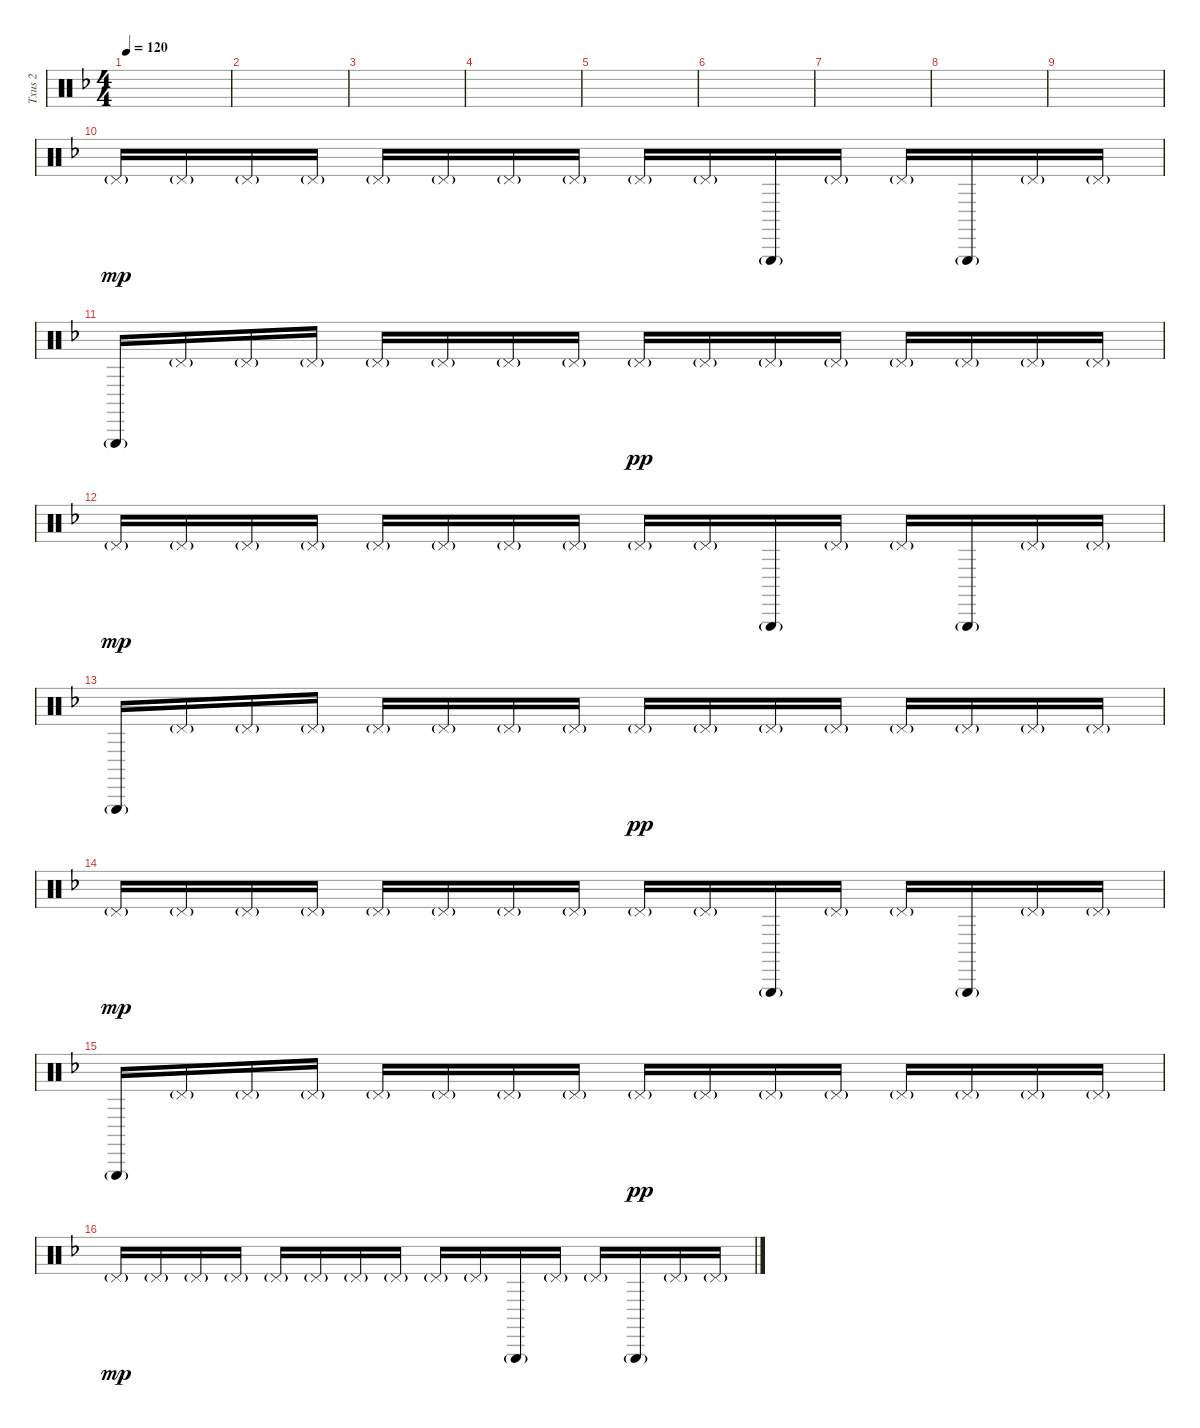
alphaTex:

\track ("Txus 2" "Txus 2") {instrument percussion}
\staff {score}
\articulation defaults
\ts (4 4)
\tempo 120
\clef neutral
\ks dminor
|
|
|
|
|
|
|
|
|
"Pedal Hi-Hat (hit)"{g}.16{dy mp} "Pedal Hi-Hat (hit)"{g}.16 "Pedal Hi-Hat (hit)"{g}.16 "Pedal Hi-Hat (hit)"{g}.16 "Pedal Hi-Hat (hit)"{g}.16 "Pedal Hi-Hat (hit)"{g}.16 "Pedal Hi-Hat (hit)"{g}.16 "Pedal Hi-Hat (hit)"{g}.16 "Pedal Hi-Hat (hit)"{g}.16 "Pedal Hi-Hat (hit)"{g}.16 "Triangle (hit)"{g}.16 "Pedal Hi-Hat (hit)"{g}.16 "Pedal Hi-Hat (hit)"{g}.16 "Triangle (hit)"{g}.16 "Pedal Hi-Hat (hit)"{g}.16 "Pedal Hi-Hat (hit)"{g}.16 |
"Triangle (hit)"{g}.16 "Pedal Hi-Hat (hit)"{g}.16 "Pedal Hi-Hat (hit)"{g}.16 "Pedal Hi-Hat (hit)"{g}.16 "Pedal Hi-Hat (hit)"{g}.16 "Pedal Hi-Hat (hit)"{g}.16 "Pedal Hi-Hat (hit)"{g}.16 "Pedal Hi-Hat (hit)"{g}.16 "Pedal Hi-Hat (hit)"{g}.16{dy pp} "Pedal Hi-Hat (hit)"{g}.16 "Pedal Hi-Hat (hit)"{g}.16 "Pedal Hi-Hat (hit)"{g}.16 "Pedal Hi-Hat (hit)"{g}.16 "Pedal Hi-Hat (hit)"{g}.16 "Pedal Hi-Hat (hit)"{g}.16 "Pedal Hi-Hat (hit)"{g}.16 |
"Pedal Hi-Hat (hit)"{g}.16{dy mp} "Pedal Hi-Hat (hit)"{g}.16 "Pedal Hi-Hat (hit)"{g}.16 "Pedal Hi-Hat (hit)"{g}.16 "Pedal Hi-Hat (hit)"{g}.16 "Pedal Hi-Hat (hit)"{g}.16 "Pedal Hi-Hat (hit)"{g}.16 "Pedal Hi-Hat (hit)"{g}.16 "Pedal Hi-Hat (hit)"{g}.16 "Pedal Hi-Hat (hit)"{g}.16 "Triangle (hit)"{g}.16 "Pedal Hi-Hat (hit)"{g}.16 "Pedal Hi-Hat (hit)"{g}.16 "Triangle (hit)"{g}.16 "Pedal Hi-Hat (hit)"{g}.16 "Pedal Hi-Hat (hit)"{g}.16 |
"Triangle (hit)"{g}.16 "Pedal Hi-Hat (hit)"{g}.16 "Pedal Hi-Hat (hit)"{g}.16 "Pedal Hi-Hat (hit)"{g}.16 "Pedal Hi-Hat (hit)"{g}.16 "Pedal Hi-Hat (hit)"{g}.16 "Pedal Hi-Hat (hit)"{g}.16 "Pedal Hi-Hat (hit)"{g}.16 "Pedal Hi-Hat (hit)"{g}.16{dy pp} "Pedal Hi-Hat (hit)"{g}.16 "Pedal Hi-Hat (hit)"{g}.16 "Pedal Hi-Hat (hit)"{g}.16 "Pedal Hi-Hat (hit)"{g}.16 "Pedal Hi-Hat (hit)"{g}.16 "Pedal Hi-Hat (hit)"{g}.16 "Pedal Hi-Hat (hit)"{g}.16 |
"Pedal Hi-Hat (hit)"{g}.16{dy mp} "Pedal Hi-Hat (hit)"{g}.16 "Pedal Hi-Hat (hit)"{g}.16 "Pedal Hi-Hat (hit)"{g}.16 "Pedal Hi-Hat (hit)"{g}.16 "Pedal Hi-Hat (hit)"{g}.16 "Pedal Hi-Hat (hit)"{g}.16 "Pedal Hi-Hat (hit)"{g}.16 "Pedal Hi-Hat (hit)"{g}.16 "Pedal Hi-Hat (hit)"{g}.16 "Triangle (hit)"{g}.16 "Pedal Hi-Hat (hit)"{g}.16 "Pedal Hi-Hat (hit)"{g}.16 "Triangle (hit)"{g}.16 "Pedal Hi-Hat (hit)"{g}.16 "Pedal Hi-Hat (hit)"{g}.16 |
"Triangle (hit)"{g}.16 "Pedal Hi-Hat (hit)"{g}.16 "Pedal Hi-Hat (hit)"{g}.16 "Pedal Hi-Hat (hit)"{g}.16 "Pedal Hi-Hat (hit)"{g}.16 "Pedal Hi-Hat (hit)"{g}.16 "Pedal Hi-Hat (hit)"{g}.16 "Pedal Hi-Hat (hit)"{g}.16 "Pedal Hi-Hat (hit)"{g}.16{dy pp} "Pedal Hi-Hat (hit)"{g}.16 "Pedal Hi-Hat (hit)"{g}.16 "Pedal Hi-Hat (hit)"{g}.16 "Pedal Hi-Hat (hit)"{g}.16 "Pedal Hi-Hat (hit)"{g}.16 "Pedal Hi-Hat (hit)"{g}.16 "Pedal Hi-Hat (hit)"{g}.16 |
"Pedal Hi-Hat (hit)"{g}.16{dy mp} "Pedal Hi-Hat (hit)"{g}.16 "Pedal Hi-Hat (hit)"{g}.16 "Pedal Hi-Hat (hit)"{g}.16 "Pedal Hi-Hat (hit)"{g}.16 "Pedal Hi-Hat (hit)"{g}.16 "Pedal Hi-Hat (hit)"{g}.16 "Pedal Hi-Hat (hit)"{g}.16 "Pedal Hi-Hat (hit)"{g}.16 "Pedal Hi-Hat (hit)"{g}.16 "Triangle (hit)"{g}.16 "Pedal Hi-Hat (hit)"{g}.16 "Pedal Hi-Hat (hit)"{g}.16 "Triangle (hit)"{g}.16 "Pedal Hi-Hat (hit)"{g}.16 "Pedal Hi-Hat (hit)"{g}.16
